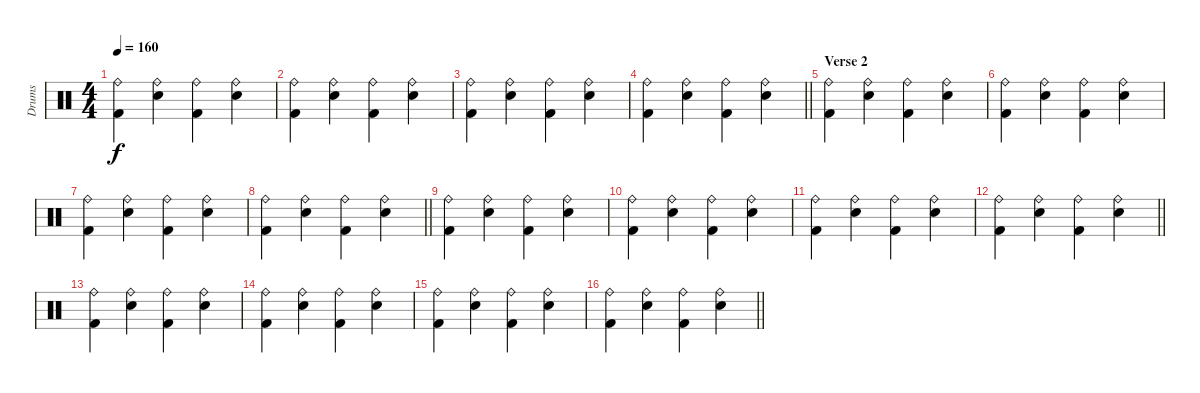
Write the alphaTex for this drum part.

\track ("Drums" "Drums") {instrument percussion}
\staff {score}
\articulation defaults
\ts (4 4)
\tempo 160
\clef neutral
\ks c
("Ride (bell)" "Kick (hit) 2").4{dy f} ("Ride (bell)" "Snare (hit) 2").4 ("Ride (bell)" "Kick (hit) 2").4 ("Ride (bell)" "Snare (hit) 2").4 |
("Ride (bell)" "Kick (hit) 2").4 ("Ride (bell)" "Snare (hit) 2").4 ("Ride (bell)" "Kick (hit) 2").4 ("Ride (bell)" "Snare (hit) 2").4 |
("Ride (bell)" "Kick (hit) 2").4 ("Ride (bell)" "Snare (hit) 2").4 ("Ride (bell)" "Kick (hit) 2").4 ("Ride (bell)" "Snare (hit) 2").4 |
\barLineRight lightlight
("Ride (bell)" "Kick (hit) 2").4 ("Ride (bell)" "Snare (hit) 2").4 ("Ride (bell)" "Kick (hit) 2").4 ("Ride (bell)" "Snare (hit) 2").4 |
\section ("" "Verse 2")
("Ride (bell)" "Kick (hit) 2").4 ("Ride (bell)" "Snare (hit) 2").4 ("Ride (bell)" "Kick (hit) 2").4 ("Ride (bell)" "Snare (hit) 2").4 |
("Ride (bell)" "Kick (hit) 2").4 ("Ride (bell)" "Snare (hit) 2").4 ("Ride (bell)" "Kick (hit) 2").4 ("Ride (bell)" "Snare (hit) 2").4 |
("Ride (bell)" "Kick (hit) 2").4 ("Ride (bell)" "Snare (hit) 2").4 ("Ride (bell)" "Kick (hit) 2").4 ("Ride (bell)" "Snare (hit) 2").4 |
\barLineRight lightlight
("Ride (bell)" "Kick (hit) 2").4 ("Ride (bell)" "Snare (hit) 2").4 ("Ride (bell)" "Kick (hit) 2").4 ("Ride (bell)" "Snare (hit) 2").4 |
("Ride (bell)" "Kick (hit) 2").4 ("Ride (bell)" "Snare (hit) 2").4 ("Ride (bell)" "Kick (hit) 2").4 ("Ride (bell)" "Snare (hit) 2").4 |
("Ride (bell)" "Kick (hit) 2").4 ("Ride (bell)" "Snare (hit) 2").4 ("Ride (bell)" "Kick (hit) 2").4 ("Ride (bell)" "Snare (hit) 2").4 |
("Ride (bell)" "Kick (hit) 2").4 ("Ride (bell)" "Snare (hit) 2").4 ("Ride (bell)" "Kick (hit) 2").4 ("Ride (bell)" "Snare (hit) 2").4 |
\barLineRight lightlight
("Ride (bell)" "Kick (hit) 2").4 ("Ride (bell)" "Snare (hit) 2").4 ("Ride (bell)" "Kick (hit) 2").4 ("Ride (bell)" "Snare (hit) 2").4 |
("Ride (bell)" "Kick (hit) 2").4 ("Ride (bell)" "Snare (hit) 2").4 ("Ride (bell)" "Kick (hit) 2").4 ("Ride (bell)" "Snare (hit) 2").4 |
("Ride (bell)" "Kick (hit) 2").4 ("Ride (bell)" "Snare (hit) 2").4 ("Ride (bell)" "Kick (hit) 2").4 ("Ride (bell)" "Snare (hit) 2").4 |
("Ride (bell)" "Kick (hit) 2").4 ("Ride (bell)" "Snare (hit) 2").4 ("Ride (bell)" "Kick (hit) 2").4 ("Ride (bell)" "Snare (hit) 2").4 |
\barLineRight lightlight
("Ride (bell)" "Kick (hit) 2").4 ("Ride (bell)" "Snare (hit) 2").4 ("Ride (bell)" "Kick (hit) 2").4 ("Ride (bell)" "Snare (hit) 2").4
